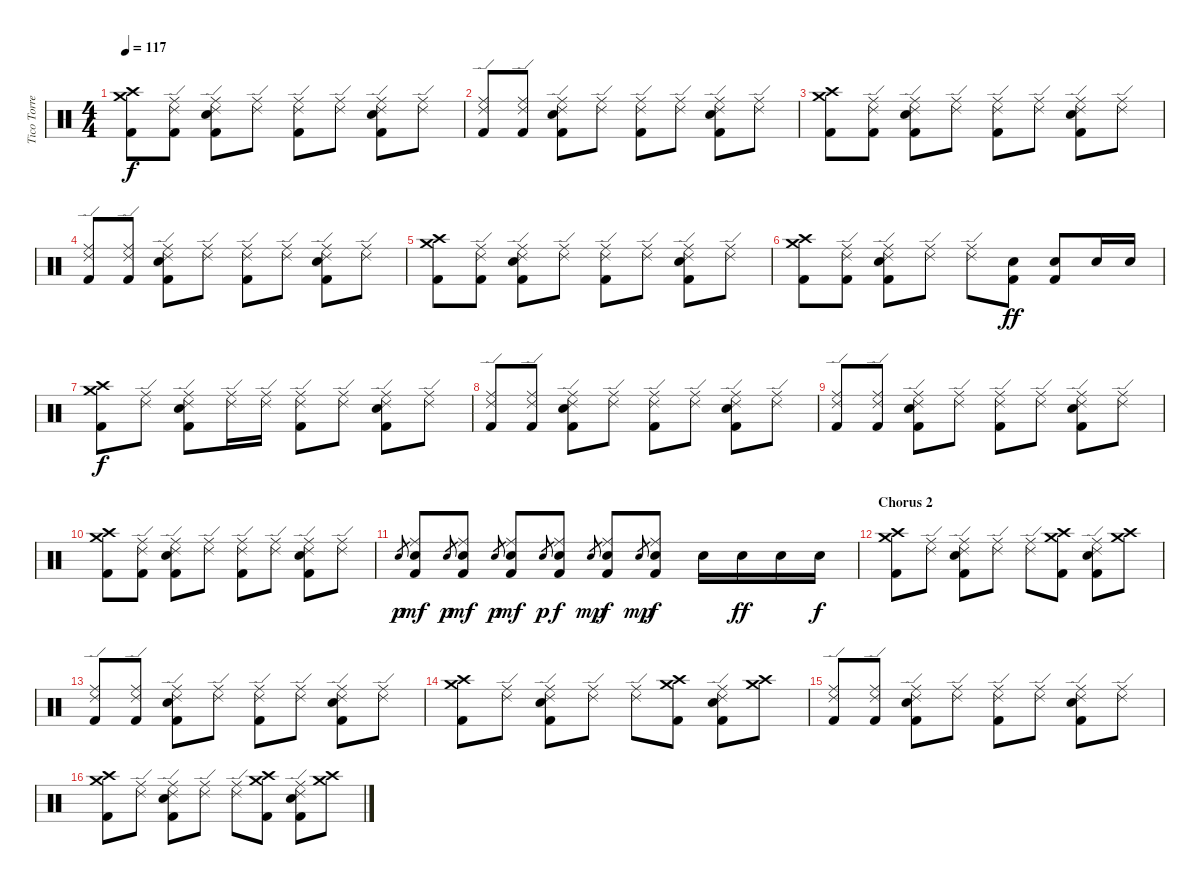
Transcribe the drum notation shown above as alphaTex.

\track ("Tico Torres" "Tico Torre") {instrument percussion}
\staff {score}
\articulation defaults
\ts (4 4)
\tempo 117
\clef neutral
\ks c
("Crash high (hit)" "Crash medium (hit)" "Kick (hit) 2").8{dy f} ("Ride (middle)" "Ride (edge) 2" "Kick (hit) 2").8 ("Ride (middle)" "Ride (edge) 2" "Electric Snare (hit)" "Kick (hit) 2").8 ("Ride (middle)" "Ride (edge) 2").8 ("Ride (middle)" "Ride (edge) 2" "Kick (hit) 2").8 ("Ride (middle)" "Ride (edge) 2").8 ("Ride (middle)" "Ride (edge) 2" "Electric Snare (hit)" "Kick (hit) 2").8 ("Ride (middle)" "Ride (edge) 2").8 |
("Ride (middle)" "Ride (edge) 2" "Kick (hit) 2").8 ("Ride (middle)" "Ride (edge) 2" "Kick (hit) 2").8 ("Ride (middle)" "Ride (edge) 2" "Electric Snare (hit)" "Kick (hit) 2").8 ("Ride (middle)" "Ride (edge) 2").8 ("Ride (middle)" "Ride (edge) 2" "Kick (hit) 2").8 ("Ride (middle)" "Ride (edge) 2").8 ("Ride (middle)" "Ride (edge) 2" "Electric Snare (hit)" "Kick (hit) 2").8 ("Ride (middle)" "Ride (edge) 2").8 |
("Crash high (hit)" "Crash medium (hit)" "Kick (hit) 2").8 ("Ride (middle)" "Ride (edge) 2" "Kick (hit) 2").8 ("Ride (middle)" "Ride (edge) 2" "Electric Snare (hit)" "Kick (hit) 2").8 ("Ride (middle)" "Ride (edge) 2").8 ("Ride (middle)" "Ride (edge) 2" "Kick (hit) 2").8 ("Ride (middle)" "Ride (edge) 2").8 ("Ride (middle)" "Ride (edge) 2" "Electric Snare (hit)" "Kick (hit) 2").8 ("Ride (middle)" "Ride (edge) 2").8 |
("Ride (middle)" "Ride (edge) 2" "Kick (hit) 2").8 ("Ride (middle)" "Ride (edge) 2" "Kick (hit) 2").8 ("Ride (middle)" "Ride (edge) 2" "Electric Snare (hit)" "Kick (hit) 2").8 ("Ride (middle)" "Ride (edge) 2").8 ("Ride (middle)" "Ride (edge) 2" "Kick (hit) 2").8 ("Ride (middle)" "Ride (edge) 2").8 ("Ride (middle)" "Ride (edge) 2" "Electric Snare (hit)" "Kick (hit) 2").8 ("Ride (middle)" "Ride (edge) 2").8 |
("Crash high (hit)" "Crash medium (hit)" "Kick (hit) 2").8 ("Ride (middle)" "Ride (edge) 2" "Kick (hit) 2").8 ("Ride (middle)" "Ride (edge) 2" "Electric Snare (hit)" "Kick (hit) 2").8 ("Ride (middle)" "Ride (edge) 2").8 ("Ride (middle)" "Ride (edge) 2" "Kick (hit) 2").8 ("Ride (middle)" "Ride (edge) 2").8 ("Ride (middle)" "Ride (edge) 2" "Electric Snare (hit)" "Kick (hit) 2").8 ("Ride (middle)" "Ride (edge) 2").8 |
("Crash high (hit)" "Crash medium (hit)" "Kick (hit) 2").8 ("Ride (middle)" "Ride (edge) 2" "Kick (hit) 2").8 ("Ride (middle)" "Ride (edge) 2" "Electric Snare (hit)" "Kick (hit) 2").8 ("Ride (middle)" "Ride (edge) 2").8 ("Ride (middle)" "Ride (edge) 2").8 ("Electric Snare (hit)" "Kick (hit) 2").8{dy ff} ("Electric Snare (hit)" "Kick (hit) 2").8 "Electric Snare (hit)".16 "Electric Snare (hit)".16 |
("Crash high (hit)" "Crash medium (hit)" "Kick (hit) 2").8{dy f} ("Ride (middle)" "Ride (edge) 2").8 ("Ride (middle)" "Ride (edge) 2" "Electric Snare (hit)" "Kick (hit) 2").8 ("Ride (middle)" "Ride (edge) 2").16 ("Ride (middle)" "Ride (edge) 2").16 ("Ride (middle)" "Ride (edge) 2" "Kick (hit) 2").8 ("Ride (middle)" "Ride (edge) 2").8 ("Ride (middle)" "Ride (edge) 2" "Electric Snare (hit)" "Kick (hit) 2").8 ("Ride (middle)" "Ride (edge) 2").8 |
("Ride (middle)" "Ride (edge) 2" "Kick (hit) 2").8 ("Ride (middle)" "Ride (edge) 2" "Kick (hit) 2").8 ("Ride (middle)" "Ride (edge) 2" "Electric Snare (hit)" "Kick (hit) 2").8 ("Ride (middle)" "Ride (edge) 2").8 ("Ride (middle)" "Ride (edge) 2" "Kick (hit) 2").8 ("Ride (middle)" "Ride (edge) 2").8 ("Ride (middle)" "Ride (edge) 2" "Electric Snare (hit)" "Kick (hit) 2").8 ("Ride (middle)" "Ride (edge) 2").8 |
("Ride (middle)" "Ride (edge) 2" "Kick (hit) 2").8 ("Ride (middle)" "Ride (edge) 2" "Kick (hit) 2").8 ("Ride (middle)" "Ride (edge) 2" "Electric Snare (hit)" "Kick (hit) 2").8 ("Ride (middle)" "Ride (edge) 2").8 ("Ride (middle)" "Ride (edge) 2" "Kick (hit) 2").8 ("Ride (middle)" "Ride (edge) 2").8 ("Ride (middle)" "Ride (edge) 2" "Electric Snare (hit)" "Kick (hit) 2").8 ("Ride (middle)" "Ride (edge) 2").8 |
("Crash high (hit)" "Crash medium (hit)" "Kick (hit) 2").8 ("Ride (middle)" "Ride (edge) 2" "Kick (hit) 2").8 ("Ride (middle)" "Ride (edge) 2" "Electric Snare (hit)" "Kick (hit) 2").8 ("Ride (middle)" "Ride (edge) 2").8 ("Ride (middle)" "Ride (edge) 2" "Kick (hit) 2").8 ("Ride (middle)" "Ride (edge) 2").8 ("Ride (middle)" "Ride (edge) 2" "Electric Snare (hit)" "Kick (hit) 2").8 ("Ride (middle)" "Ride (edge) 2").8 |
"Electric Snare (hit)".8{gr dy p} ("Electric Snare (hit)" "Kick (hit) 2" "Ride (middle)").8{dy mf} "Electric Snare (hit)".8{gr dy p} ("Electric Snare (hit)" "Kick (hit) 2" "Ride (middle)").8{dy mf} "Electric Snare (hit)".8{gr dy p} ("Electric Snare (hit)" "Kick (hit) 2" "Ride (middle)").8{dy mf} "Electric Snare (hit)".8{gr dy p} ("Electric Snare (hit)" "Kick (hit) 2" "Ride (middle)").8{dy f} "Electric Snare (hit)".8{gr dy mp} ("Electric Snare (hit)" "Kick (hit) 2" "Ride (middle)").8{dy f} "Electric Snare (hit)".8{gr dy mp} ("Electric Snare (hit)" "Kick (hit) 2" "Ride (middle)").8{dy f} "Electric Snare (hit)".16 "Electric Snare (hit)".16{dy ff} "Electric Snare (hit)".16 "Electric Snare (hit)".16{dy f} |
\section ("" "Chorus 2")
("Crash high (hit)" "Crash medium (hit)" "Kick (hit) 2").8 ("Ride (middle)" "Ride (edge) 2").8 ("Ride (middle)" "Ride (edge) 2" "Electric Snare (hit)" "Kick (hit) 2").8 ("Ride (middle)" "Ride (edge) 2").8 ("Ride (middle)" "Ride (edge) 2").8 ("Crash high (hit)" "Crash medium (hit)" "Kick (hit) 2").8 ("Ride (middle)" "Ride (edge) 2" "Electric Snare (hit)" "Kick (hit) 2").8 ("Crash high (hit)" "Crash medium (hit)").8 |
("Ride (middle)" "Ride (edge) 2" "Kick (hit) 2").8 ("Ride (middle)" "Ride (edge) 2" "Kick (hit) 2").8 ("Ride (middle)" "Ride (edge) 2" "Electric Snare (hit)" "Kick (hit) 2").8 ("Ride (middle)" "Ride (edge) 2").8 ("Ride (middle)" "Ride (edge) 2" "Kick (hit) 2").8 ("Ride (middle)" "Ride (edge) 2").8 ("Ride (middle)" "Ride (edge) 2" "Electric Snare (hit)" "Kick (hit) 2").8 ("Ride (middle)" "Ride (edge) 2").8 |
("Crash high (hit)" "Crash medium (hit)" "Kick (hit) 2").8 ("Ride (middle)" "Ride (edge) 2").8 ("Ride (middle)" "Ride (edge) 2" "Electric Snare (hit)" "Kick (hit) 2").8 ("Ride (middle)" "Ride (edge) 2").8 ("Ride (middle)" "Ride (edge) 2").8 ("Crash high (hit)" "Crash medium (hit)" "Kick (hit) 2").8 ("Ride (middle)" "Ride (edge) 2" "Electric Snare (hit)" "Kick (hit) 2").8 ("Crash high (hit)" "Crash medium (hit)").8 |
("Ride (middle)" "Ride (edge) 2" "Kick (hit) 2").8 ("Ride (middle)" "Ride (edge) 2" "Kick (hit) 2").8 ("Ride (middle)" "Ride (edge) 2" "Electric Snare (hit)" "Kick (hit) 2").8 ("Ride (middle)" "Ride (edge) 2").8 ("Ride (middle)" "Ride (edge) 2" "Kick (hit) 2").8 ("Ride (middle)" "Ride (edge) 2").8 ("Ride (middle)" "Ride (edge) 2" "Electric Snare (hit)" "Kick (hit) 2").8 ("Ride (middle)" "Ride (edge) 2").8 |
("Crash high (hit)" "Crash medium (hit)" "Kick (hit) 2").8 ("Ride (middle)" "Ride (edge) 2").8 ("Ride (middle)" "Ride (edge) 2" "Electric Snare (hit)" "Kick (hit) 2").8 ("Ride (middle)" "Ride (edge) 2").8 ("Ride (middle)" "Ride (edge) 2").8 ("Crash high (hit)" "Crash medium (hit)" "Kick (hit) 2").8 ("Ride (middle)" "Ride (edge) 2" "Electric Snare (hit)" "Kick (hit) 2").8 ("Crash high (hit)" "Crash medium (hit)").8
